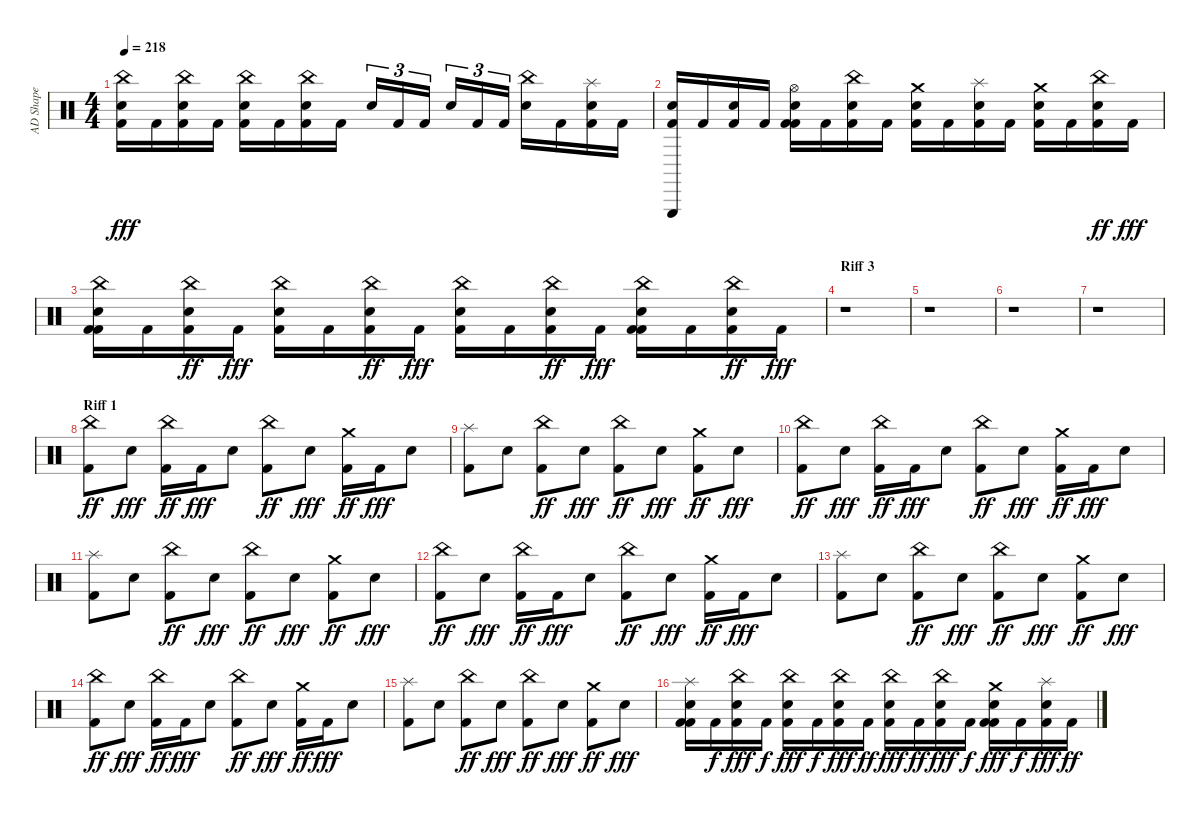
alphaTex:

\track ("AD Shape" "AD Shape") {instrument percussion}
\staff {score}
\articulation defaults
\ts (4 4)
\tempo 218
\clef neutral
\ks c
("Kick (hit) 2" "Snare (hit) 2" "China (hit)").16{dy fff} "Kick (hit) 2".16 ("Kick (hit) 2" "Snare (hit) 2" "China (hit)").16 "Kick (hit) 2".16 ("Kick (hit) 2" "Snare (hit) 2" "China (hit)").16 "Kick (hit) 2".16 ("Kick (hit) 2" "Snare (hit) 2" "China (hit)").16 "Kick (hit) 2".16 "Snare (hit) 2".16{tu (3 2)} "Kick (hit) 2".16{tu (3 2)} "Kick (hit) 2".16{tu (3 2)} "Snare (hit) 2".16{tu (3 2)} "Kick (hit) 2".16{tu (3 2)} "Kick (hit) 2".16{tu (3 2)} ("Snare (hit) 2" "China (hit)").16 "Kick (hit) 2".16 ("Kick (hit) 2" "Snare (hit) 2" "Splash (hit)").16 "Kick (hit) 2".16 |
("Kick (hit) 2" "Snare (hit) 2" "Triangle (hit)").16 "Kick (hit) 2".16 ("Kick (hit) 2" "Snare (hit) 2").16 "Kick (hit) 2".16 ("Kick (hit) 2" "Kick (hit) 2" "Snare (hit) 2" "Hi-Hat (open)").16 "Kick (hit) 2".16 ("Kick (hit) 2" "Snare (hit) 2" "China (hit)").16 "Kick (hit) 2".16 ("Kick (hit) 2" "Snare (hit) 2" "Crash medium (hit)").16 "Kick (hit) 2".16 ("Kick (hit) 2" "Snare (hit) 2" "Splash (hit)").16 "Kick (hit) 2".16 ("Kick (hit) 2" "Snare (hit) 2" "Crash medium (hit)").16 "Kick (hit) 2".16 ("Kick (hit) 2" "Snare (hit) 2" "China (hit)").16{dy ff} "Kick (hit) 2".16{dy fff} |
("Kick (hit) 2" "Kick (hit) 2" "Snare (hit) 2" "China (hit)").16 "Kick (hit) 2".16 ("Kick (hit) 2" "Snare (hit) 2" "China (hit)").16{dy ff} "Kick (hit) 2".16{dy fff} ("Kick (hit) 2" "Snare (hit) 2" "China (hit)").16 "Kick (hit) 2".16 ("Kick (hit) 2" "Snare (hit) 2" "China (hit)").16{dy ff} "Kick (hit) 2".16{dy fff} ("Kick (hit) 2" "Snare (hit) 2" "China (hit)").16 "Kick (hit) 2".16 ("Kick (hit) 2" "Snare (hit) 2" "China (hit)").16{dy ff} "Kick (hit) 2".16{dy fff} ("Kick (hit) 2" "Kick (hit) 2" "Snare (hit) 2" "China (hit)").16 "Kick (hit) 2".16 ("Kick (hit) 2" "Snare (hit) 2" "China (hit)").16{dy ff} "Kick (hit) 2".16{dy fff} |
\section ("" "Riff 3")
r.1 |
r.1 |
r.1 |
r.1 |
\section ("" "Riff 1")
("Kick (hit) 2" "China (hit)").8{dy ff} "Snare (hit) 2".8{dy fff} ("Kick (hit) 2" "China (hit)").16{dy ff} "Kick (hit) 2".16{dy fff} "Snare (hit) 2".8 ("Kick (hit) 2" "China (hit)").8{dy ff} "Snare (hit) 2".8{dy fff} ("Kick (hit) 2" "Crash medium (hit)").16{dy ff} "Kick (hit) 2".16{dy fff} "Snare (hit) 2".8 |
("Kick (hit) 2" "Splash (hit)").8 "Snare (hit) 2".8 ("Kick (hit) 2" "China (hit)").8{dy ff} "Snare (hit) 2".8{dy fff} ("Kick (hit) 2" "China (hit)").8{dy ff} "Snare (hit) 2".8{dy fff} ("Kick (hit) 2" "Crash medium (hit)").8{dy ff} "Snare (hit) 2".8{dy fff} |
("Kick (hit) 2" "China (hit)").8{dy ff} "Snare (hit) 2".8{dy fff} ("Kick (hit) 2" "China (hit)").16{dy ff} "Kick (hit) 2".16{dy fff} "Snare (hit) 2".8 ("Kick (hit) 2" "China (hit)").8{dy ff} "Snare (hit) 2".8{dy fff} ("Kick (hit) 2" "Crash medium (hit)").16{dy ff} "Kick (hit) 2".16{dy fff} "Snare (hit) 2".8 |
("Kick (hit) 2" "Splash (hit)").8 "Snare (hit) 2".8 ("Kick (hit) 2" "China (hit)").8{dy ff} "Snare (hit) 2".8{dy fff} ("Kick (hit) 2" "China (hit)").8{dy ff} "Snare (hit) 2".8{dy fff} ("Kick (hit) 2" "Crash medium (hit)").8{dy ff} "Snare (hit) 2".8{dy fff} |
("Kick (hit) 2" "China (hit)").8{dy ff} "Snare (hit) 2".8{dy fff} ("Kick (hit) 2" "China (hit)").16{dy ff} "Kick (hit) 2".16{dy fff} "Snare (hit) 2".8 ("Kick (hit) 2" "China (hit)").8{dy ff} "Snare (hit) 2".8{dy fff} ("Kick (hit) 2" "Crash medium (hit)").16{dy ff} "Kick (hit) 2".16{dy fff} "Snare (hit) 2".8 |
("Kick (hit) 2" "Splash (hit)").8 "Snare (hit) 2".8 ("Kick (hit) 2" "China (hit)").8{dy ff} "Snare (hit) 2".8{dy fff} ("Kick (hit) 2" "China (hit)").8{dy ff} "Snare (hit) 2".8{dy fff} ("Kick (hit) 2" "Crash medium (hit)").8{dy ff} "Snare (hit) 2".8{dy fff} |
("Kick (hit) 2" "China (hit)").8{dy ff} "Snare (hit) 2".8{dy fff} ("Kick (hit) 2" "China (hit)").16{dy ff} "Kick (hit) 2".16{dy fff} "Snare (hit) 2".8 ("Kick (hit) 2" "China (hit)").8{dy ff} "Snare (hit) 2".8{dy fff} ("Kick (hit) 2" "Crash medium (hit)").16{dy ff} "Kick (hit) 2".16{dy fff} "Snare (hit) 2".8 |
("Kick (hit) 2" "Splash (hit)").8 "Snare (hit) 2".8 ("Kick (hit) 2" "China (hit)").8{dy ff} "Snare (hit) 2".8{dy fff} ("Kick (hit) 2" "China (hit)").8{dy ff} "Snare (hit) 2".8{dy fff} ("Kick (hit) 2" "Crash medium (hit)").8{dy ff} "Snare (hit) 2".8{dy fff} |
("Kick (hit) 2" "Kick (hit) 2" "Snare (hit) 2" "Splash (hit)").16 "Kick (hit) 2".16{dy f} ("Kick (hit) 2" "Snare (hit) 2" "China (hit)").16{dy fff} "Kick (hit) 2".16{dy f} ("Kick (hit) 2" "Snare (hit) 2" "China (hit)").16{dy fff} "Kick (hit) 2".16{dy f} ("Kick (hit) 2" "Snare (hit) 2" "China (hit)").16{dy fff} "Kick (hit) 2".16{dy ff} ("Kick (hit) 2" "Snare (hit) 2" "China (hit)").16{dy fff} "Kick (hit) 2".16{dy ff} ("Kick (hit) 2" "Snare (hit) 2" "China (hit)").16{dy fff} "Kick (hit) 2".16{dy f} ("Kick (hit) 2" "Kick (hit) 2" "Snare (hit) 2" "Crash medium (hit)").16{dy fff} "Kick (hit) 2".16{dy f} ("Kick (hit) 2" "Snare (hit) 2" "Splash (hit)").16{dy fff} "Kick (hit) 2".16{dy ff}
